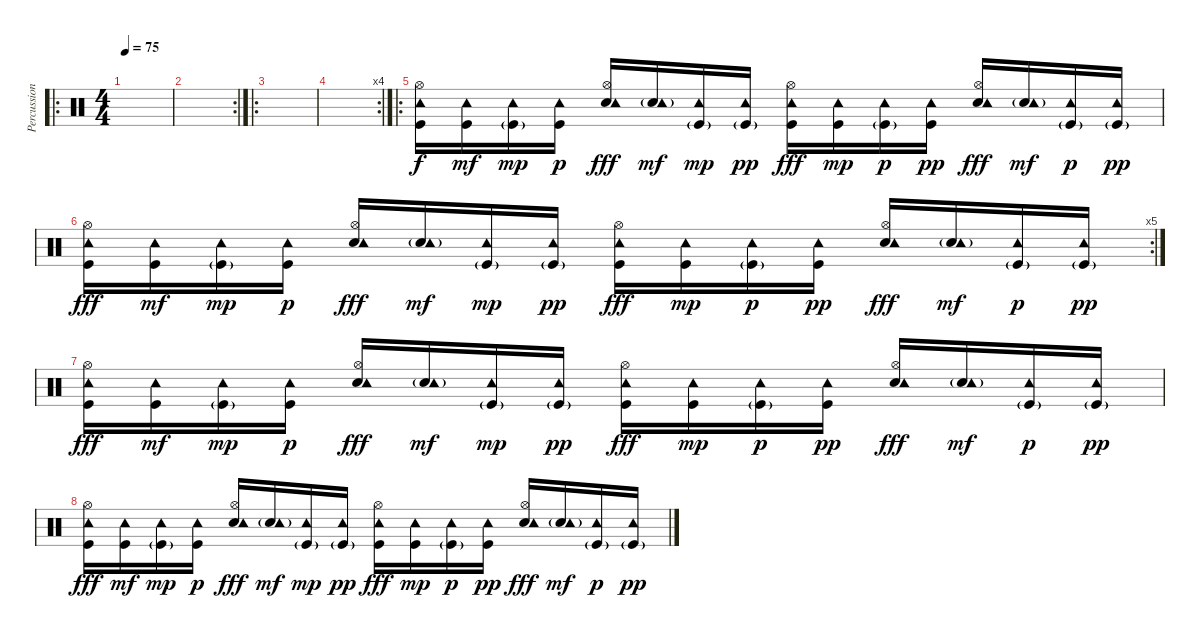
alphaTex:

\track ("Percussioni" "Percussion") {instrument percussion}
\staff {score}
\articulation defaults
\ro
\ts (4 4)
\tempo 75
\clef neutral
\ks c
|
\rc 2
|
\ro
|
\rc 4
|
\ro
("Kick (hit)" "Tambourine (hit)" "Hi-Hat (open)").16 ("Kick (hit)" "Tambourine (hit)").16{dy mf} ("Kick (hit)"{g} "Tambourine (hit)").16{dy mp} ("Kick (hit)" "Tambourine (hit)").16{dy p} ("Snare (hit) 2" "Tambourine (hit)" "Hi-Hat (open)").16{dy fff} ("Snare (hit) 2"{g} "Tambourine (hit)").16{dy mf} ("Kick (hit)"{g} "Tambourine (hit)").16{dy mp} ("Kick (hit)"{g} "Tambourine (hit)").16{dy pp} ("Kick (hit)" "Tambourine (hit)" "Hi-Hat (open)").16{dy fff} ("Kick (hit)" "Tambourine (hit)").16{dy mp} ("Kick (hit)"{g} "Tambourine (hit)").16{dy p} ("Kick (hit)" "Tambourine (hit)").16{dy pp} ("Snare (hit) 2" "Tambourine (hit)" "Hi-Hat (open)").16{dy fff} ("Snare (hit) 2"{g} "Tambourine (hit)").16{dy mf} ("Kick (hit)"{g} "Tambourine (hit)").16{dy p} ("Kick (hit)"{g} "Tambourine (hit)").16{dy pp} |
\rc 5
("Kick (hit)" "Tambourine (hit)" "Hi-Hat (open)").16{dy fff} ("Kick (hit)" "Tambourine (hit)").16{dy mf} ("Kick (hit)"{g} "Tambourine (hit)").16{dy mp} ("Kick (hit)" "Tambourine (hit)").16{dy p} ("Snare (hit) 2" "Tambourine (hit)" "Hi-Hat (open)").16{dy fff} ("Snare (hit) 2"{g} "Tambourine (hit)").16{dy mf} ("Kick (hit)"{g} "Tambourine (hit)").16{dy mp} ("Kick (hit)"{g} "Tambourine (hit)").16{dy pp} ("Kick (hit)" "Tambourine (hit)" "Hi-Hat (open)").16{dy fff} ("Kick (hit)" "Tambourine (hit)").16{dy mp} ("Kick (hit)"{g} "Tambourine (hit)").16{dy p} ("Kick (hit)" "Tambourine (hit)").16{dy pp} ("Snare (hit) 2" "Tambourine (hit)" "Hi-Hat (open)").16{dy fff} ("Snare (hit) 2"{g} "Tambourine (hit)").16{dy mf} ("Kick (hit)"{g} "Tambourine (hit)").16{dy p} ("Kick (hit)"{g} "Tambourine (hit)").16{dy pp} |
("Kick (hit)" "Tambourine (hit)" "Hi-Hat (open)").16{dy fff volume 12} ("Kick (hit)" "Tambourine (hit)").16{dy mf volume 11} ("Kick (hit)"{g} "Tambourine (hit)").16{dy mp volume 10} ("Kick (hit)" "Tambourine (hit)").16{dy p} ("Snare (hit) 2" "Tambourine (hit)" "Hi-Hat (open)").16{dy fff volume 9} ("Snare (hit) 2"{g} "Tambourine (hit)").16{dy mf} ("Kick (hit)"{g} "Tambourine (hit)").16{dy mp} ("Kick (hit)"{g} "Tambourine (hit)").16{dy pp} ("Kick (hit)" "Tambourine (hit)" "Hi-Hat (open)").16{dy fff volume 9} ("Kick (hit)" "Tambourine (hit)").16{dy mp} ("Kick (hit)"{g} "Tambourine (hit)").16{dy p volume 8} ("Kick (hit)" "Tambourine (hit)").16{dy pp} ("Snare (hit) 2" "Tambourine (hit)" "Hi-Hat (open)").16{dy fff volume 7} ("Snare (hit) 2"{g} "Tambourine (hit)").16{dy mf} ("Kick (hit)"{g} "Tambourine (hit)").16{dy p} ("Kick (hit)"{g} "Tambourine (hit)").16{dy pp volume 6} |
("Kick (hit)" "Tambourine (hit)" "Hi-Hat (open)").16{dy fff volume 4} ("Kick (hit)" "Tambourine (hit)").16{dy mf} ("Kick (hit)"{g} "Tambourine (hit)").16{dy mp} ("Kick (hit)" "Tambourine (hit)").16{dy p} ("Snare (hit) 2" "Tambourine (hit)" "Hi-Hat (open)").16{dy fff} ("Snare (hit) 2"{g} "Tambourine (hit)").16{dy mf volume 4} ("Kick (hit)"{g} "Tambourine (hit)").16{dy mp} ("Kick (hit)"{g} "Tambourine (hit)").16{dy pp} ("Kick (hit)" "Tambourine (hit)" "Hi-Hat (open)").16{dy fff volume 3} ("Kick (hit)" "Tambourine (hit)").16{dy mp} ("Kick (hit)"{g} "Tambourine (hit)").16{dy p} ("Kick (hit)" "Tambourine (hit)").16{dy pp} ("Snare (hit) 2" "Tambourine (hit)" "Hi-Hat (open)").16{dy fff volume 1} ("Snare (hit) 2"{g} "Tambourine (hit)").16{dy mf} ("Kick (hit)"{g} "Tambourine (hit)").16{dy p} ("Kick (hit)"{g} "Tambourine (hit)").16{dy pp}
